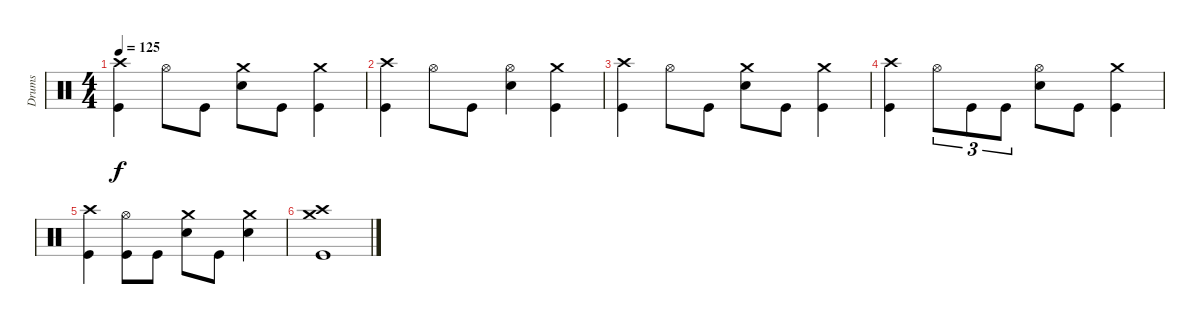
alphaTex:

\track ("Drums" "Drums") {instrument percussion}
\staff {score}
\articulation defaults
\ts (4 4)
\tempo 125
\clef neutral
\ks c
("Crash high (hit)" "Kick (hit)").4{dy f} "Hi-Hat (open)".8 "Kick (hit)".8 ("Crash medium (hit)" "Snare (hit) 2").8 "Kick (hit)".8 ("Crash medium (hit)" "Kick (hit)").4 |
("Crash high (hit)" "Kick (hit)").4 "Hi-Hat (open)".8 "Kick (hit)".8 ("Hi-Hat (open)" "Snare (hit) 2").4 ("Crash medium (hit)" "Kick (hit)").4 |
("Crash high (hit)" "Kick (hit)").4 "Hi-Hat (open)".8 "Kick (hit)".8 ("Crash medium (hit)" "Snare (hit) 2").8 "Kick (hit)".8 ("Crash medium (hit)" "Kick (hit)").4 |
("Crash high (hit)" "Kick (hit)").4 "Hi-Hat (open)".8{tu (3 2)} "Kick (hit)".8{tu (3 2)} "Kick (hit)".8{tu (3 2)} ("Hi-Hat (open)" "Snare (hit) 2").8 "Kick (hit)".8 ("Crash medium (hit)" "Kick (hit)").4 |
("Crash high (hit)" "Kick (hit)").4 ("Hi-Hat (open)" "Kick (hit)").8 "Kick (hit)".8 ("Crash medium (hit)" "Snare (hit) 2").8 "Kick (hit)".8 ("Crash medium (hit)" "Snare (hit) 2").4 |
("Crash high (hit)" "Crash medium (hit)" "Kick (hit)").1
